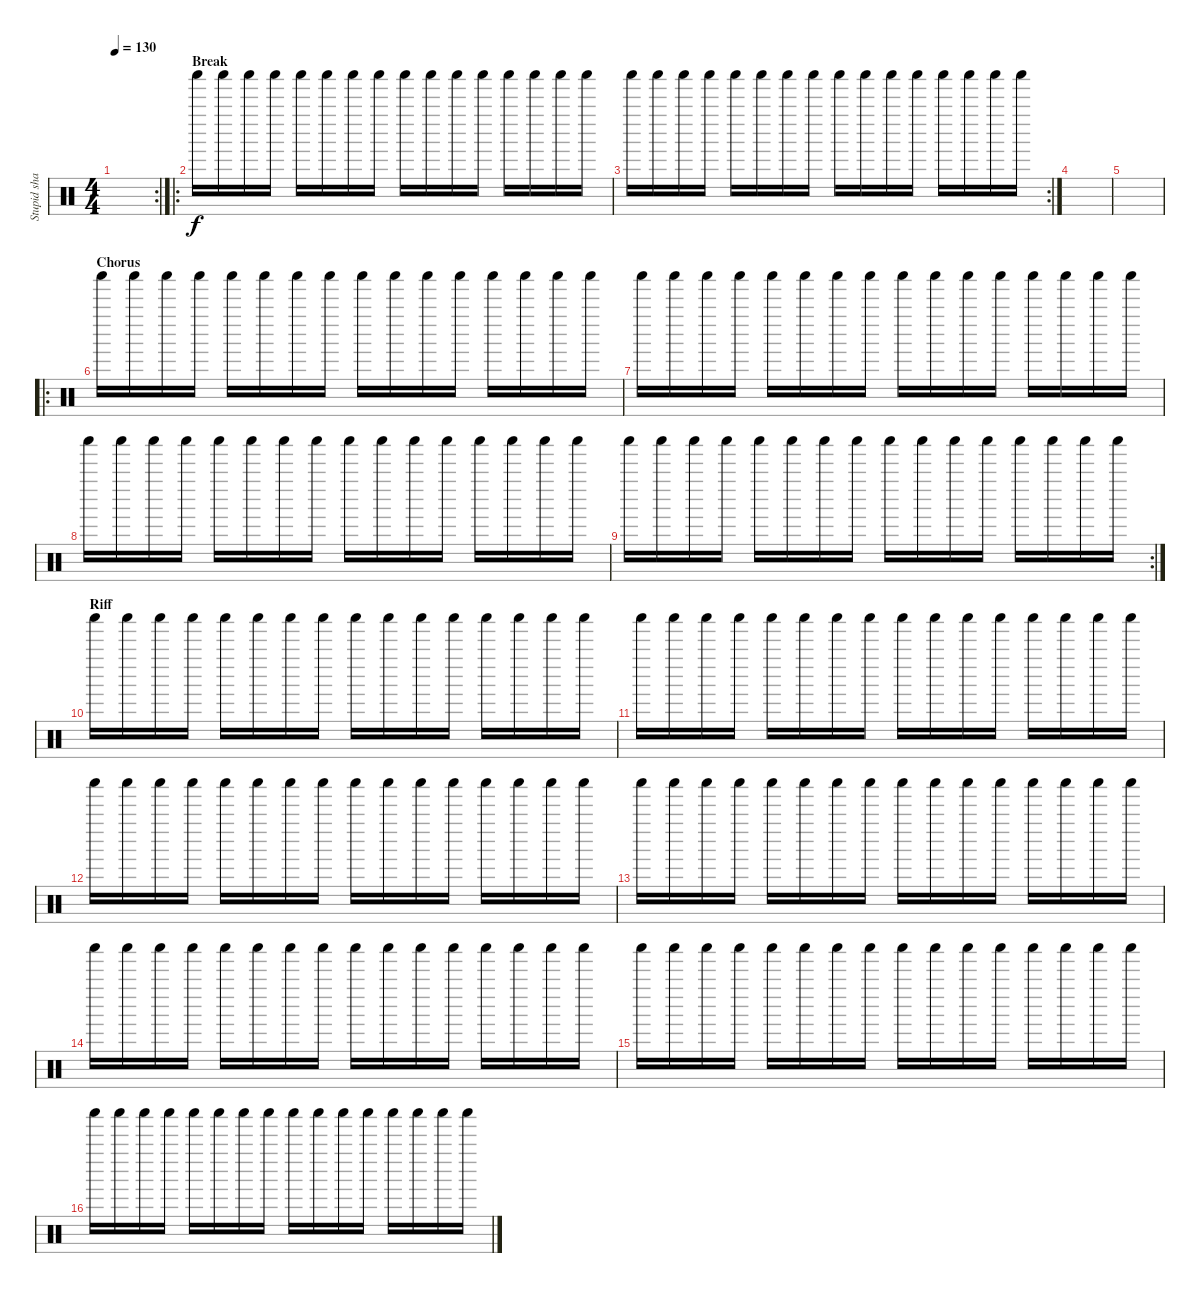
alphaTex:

\track ("Stupid shaker" "Stupid sha") {instrument percussion}
\staff {score}
\articulation defaults
\rc 2
\ts (4 4)
\tempo 130
\clef neutral
\ks c
|
\ro
\section ("" "Break")
"Shaker (hit)".16 "Shaker (hit)".16 "Shaker (hit)".16 "Shaker (hit)".16 "Shaker (hit)".16 "Shaker (hit)".16 "Shaker (hit)".16 "Shaker (hit)".16 "Shaker (hit)".16 "Shaker (hit)".16 "Shaker (hit)".16 "Shaker (hit)".16 "Shaker (hit)".16 "Shaker (hit)".16 "Shaker (hit)".16 "Shaker (hit)".16 |
\rc 2 "Shaker (hit)".16 "Shaker (hit)".16 "Shaker (hit)".16 "Shaker (hit)".16 "Shaker (hit)".16 "Shaker (hit)".16 "Shaker (hit)".16 "Shaker (hit)".16 "Shaker (hit)".16 "Shaker (hit)".16 "Shaker (hit)".16 "Shaker (hit)".16 "Shaker (hit)".16 "Shaker (hit)".16 "Shaker (hit)".16 "Shaker (hit)".16
|
|
|
\ro
\section ("" "Chorus")
"Shaker (hit)".16 "Shaker (hit)".16 "Shaker (hit)".16 "Shaker (hit)".16 "Shaker (hit)".16 "Shaker (hit)".16 "Shaker (hit)".16 "Shaker (hit)".16 "Shaker (hit)".16 "Shaker (hit)".16 "Shaker (hit)".16 "Shaker (hit)".16 "Shaker (hit)".16 "Shaker (hit)".16 "Shaker (hit)".16 "Shaker (hit)".16 |
"Shaker (hit)".16 "Shaker (hit)".16 "Shaker (hit)".16 "Shaker (hit)".16 "Shaker (hit)".16 "Shaker (hit)".16 "Shaker (hit)".16 "Shaker (hit)".16 "Shaker (hit)".16 "Shaker (hit)".16 "Shaker (hit)".16 "Shaker (hit)".16 "Shaker (hit)".16 "Shaker (hit)".16 "Shaker (hit)".16 "Shaker (hit)".16 |
"Shaker (hit)".16 "Shaker (hit)".16 "Shaker (hit)".16 "Shaker (hit)".16 "Shaker (hit)".16 "Shaker (hit)".16 "Shaker (hit)".16 "Shaker (hit)".16 "Shaker (hit)".16 "Shaker (hit)".16 "Shaker (hit)".16 "Shaker (hit)".16 "Shaker (hit)".16 "Shaker (hit)".16 "Shaker (hit)".16 "Shaker (hit)".16 |
\rc 2 "Shaker (hit)".16 "Shaker (hit)".16 "Shaker (hit)".16 "Shaker (hit)".16 "Shaker (hit)".16 "Shaker (hit)".16 "Shaker (hit)".16 "Shaker (hit)".16 "Shaker (hit)".16 "Shaker (hit)".16 "Shaker (hit)".16 "Shaker (hit)".16 "Shaker (hit)".16 "Shaker (hit)".16 "Shaker (hit)".16 "Shaker (hit)".16
|
\section ("" "Riff")
"Shaker (hit)".16 "Shaker (hit)".16 "Shaker (hit)".16 "Shaker (hit)".16 "Shaker (hit)".16 "Shaker (hit)".16 "Shaker (hit)".16 "Shaker (hit)".16 "Shaker (hit)".16 "Shaker (hit)".16 "Shaker (hit)".16 "Shaker (hit)".16 "Shaker (hit)".16 "Shaker (hit)".16 "Shaker (hit)".16 "Shaker (hit)".16 |
"Shaker (hit)".16 "Shaker (hit)".16 "Shaker (hit)".16 "Shaker (hit)".16 "Shaker (hit)".16 "Shaker (hit)".16 "Shaker (hit)".16 "Shaker (hit)".16 "Shaker (hit)".16 "Shaker (hit)".16 "Shaker (hit)".16 "Shaker (hit)".16 "Shaker (hit)".16 "Shaker (hit)".16 "Shaker (hit)".16 "Shaker (hit)".16 |
"Shaker (hit)".16 "Shaker (hit)".16 "Shaker (hit)".16 "Shaker (hit)".16 "Shaker (hit)".16 "Shaker (hit)".16 "Shaker (hit)".16 "Shaker (hit)".16 "Shaker (hit)".16 "Shaker (hit)".16 "Shaker (hit)".16 "Shaker (hit)".16 "Shaker (hit)".16 "Shaker (hit)".16 "Shaker (hit)".16 "Shaker (hit)".16 |
"Shaker (hit)".16 "Shaker (hit)".16 "Shaker (hit)".16 "Shaker (hit)".16 "Shaker (hit)".16 "Shaker (hit)".16 "Shaker (hit)".16 "Shaker (hit)".16 "Shaker (hit)".16 "Shaker (hit)".16 "Shaker (hit)".16 "Shaker (hit)".16 "Shaker (hit)".16 "Shaker (hit)".16 "Shaker (hit)".16 "Shaker (hit)".16 |
"Shaker (hit)".16 "Shaker (hit)".16 "Shaker (hit)".16 "Shaker (hit)".16 "Shaker (hit)".16 "Shaker (hit)".16 "Shaker (hit)".16 "Shaker (hit)".16 "Shaker (hit)".16 "Shaker (hit)".16 "Shaker (hit)".16 "Shaker (hit)".16 "Shaker (hit)".16 "Shaker (hit)".16 "Shaker (hit)".16 "Shaker (hit)".16 |
"Shaker (hit)".16 "Shaker (hit)".16 "Shaker (hit)".16 "Shaker (hit)".16 "Shaker (hit)".16 "Shaker (hit)".16 "Shaker (hit)".16 "Shaker (hit)".16 "Shaker (hit)".16 "Shaker (hit)".16 "Shaker (hit)".16 "Shaker (hit)".16 "Shaker (hit)".16 "Shaker (hit)".16 "Shaker (hit)".16 "Shaker (hit)".16 |
"Shaker (hit)".16 "Shaker (hit)".16 "Shaker (hit)".16 "Shaker (hit)".16 "Shaker (hit)".16 "Shaker (hit)".16 "Shaker (hit)".16 "Shaker (hit)".16 "Shaker (hit)".16 "Shaker (hit)".16 "Shaker (hit)".16 "Shaker (hit)".16 "Shaker (hit)".16 "Shaker (hit)".16 "Shaker (hit)".16 "Shaker (hit)".16
